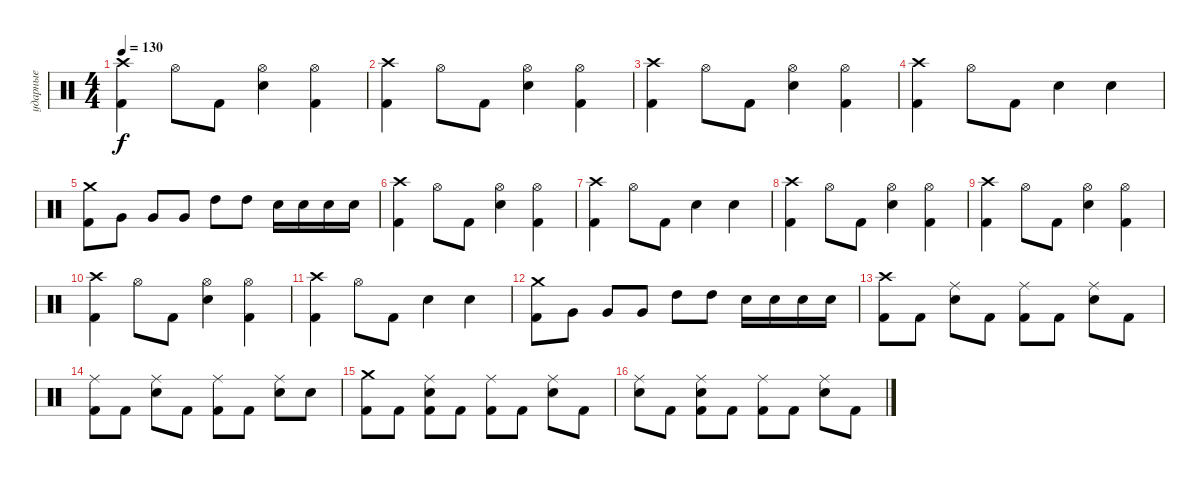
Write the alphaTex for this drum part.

\track ("ударные" "ударные") {instrument percussion}
\staff {score}
\articulation defaults
\ts (4 4)
\tempo 130
\clef neutral
\ks c
("Crash high (hit)" "Kick (hit) 2").4{dy f} "Hi-Hat (open)".8 "Kick (hit) 2".8 ("Hi-Hat (open)" "Electric Snare (hit)").4 ("Kick (hit) 2" "Hi-Hat (open)").4 |
("Crash high (hit)" "Kick (hit) 2").4 "Hi-Hat (open)".8 "Kick (hit) 2".8 ("Hi-Hat (open)" "Electric Snare (hit)").4 ("Kick (hit) 2" "Hi-Hat (open)").4 |
("Crash high (hit)" "Kick (hit) 2").4 "Hi-Hat (open)".8 "Kick (hit) 2".8 ("Hi-Hat (open)" "Electric Snare (hit)").4 ("Kick (hit) 2" "Hi-Hat (open)").4 |
("Crash high (hit)" "Kick (hit) 2").4 "Hi-Hat (open)".8 "Kick (hit) 2".8 "Electric Snare (hit)".4 "Electric Snare (hit)".4 |
("Crash medium (hit)" "Kick (hit) 2").8 "Very Low Tom (hit)".8 "Very Low Tom (hit)".8 "Very Low Tom (hit)".8 "High Tom (hit)".8 "High Tom (hit)".8 "Electric Snare (hit)".16 "Electric Snare (hit)".16 "Electric Snare (hit)".16 "Electric Snare (hit)".16 |
("Crash high (hit)" "Kick (hit) 2").4 "Hi-Hat (open)".8 "Kick (hit) 2".8 ("Hi-Hat (open)" "Electric Snare (hit)").4 ("Kick (hit) 2" "Hi-Hat (open)").4 |
("Crash high (hit)" "Kick (hit) 2").4 "Hi-Hat (open)".8 "Kick (hit) 2".8 "Electric Snare (hit)".4 "Electric Snare (hit)".4 |
("Crash high (hit)" "Kick (hit) 2").4 "Hi-Hat (open)".8 "Kick (hit) 2".8 ("Hi-Hat (open)" "Electric Snare (hit)").4 ("Kick (hit) 2" "Hi-Hat (open)").4 |
("Crash high (hit)" "Kick (hit) 2").4 "Hi-Hat (open)".8 "Kick (hit) 2".8 ("Hi-Hat (open)" "Electric Snare (hit)").4 ("Kick (hit) 2" "Hi-Hat (open)").4 |
("Crash high (hit)" "Kick (hit) 2").4 "Hi-Hat (open)".8 "Kick (hit) 2".8 ("Hi-Hat (open)" "Electric Snare (hit)").4 ("Kick (hit) 2" "Hi-Hat (open)").4 |
("Crash high (hit)" "Kick (hit) 2").4 "Hi-Hat (open)".8 "Kick (hit) 2".8 "Electric Snare (hit)".4 "Electric Snare (hit)".4 |
("Crash medium (hit)" "Kick (hit) 2").8 "Very Low Tom (hit)".8 "Very Low Tom (hit)".8 "Very Low Tom (hit)".8 "High Tom (hit)".8 "High Tom (hit)".8 "Electric Snare (hit)".16 "Electric Snare (hit)".16 "Electric Snare (hit)".16 "Electric Snare (hit)".16 |
("Crash high (hit)" "Kick (hit) 2").8 "Kick (hit) 2".8 ("Ride (middle)" "Electric Snare (hit)").8 "Kick (hit) 2".8 ("Ride (middle)" "Kick (hit) 2").8 "Kick (hit) 2".8 ("Ride (middle)" "Electric Snare (hit)").8 "Kick (hit) 2".8 |
("Kick (hit) 2" "Ride (middle)").8 "Kick (hit) 2".8 ("Ride (middle)" "Electric Snare (hit)").8 "Kick (hit) 2".8 ("Kick (hit) 2" "Ride (middle)").8 "Kick (hit) 2".8 ("Electric Snare (hit)" "Ride (middle)").8 "Electric Snare (hit)".8 |
("Crash medium (hit)" "Kick (hit) 2").8 "Kick (hit) 2".8 ("Ride (middle)" "Kick (hit) 2" "Electric Snare (hit)").8 "Kick (hit) 2".8 ("Kick (hit) 2" "Ride (middle)").8 "Kick (hit) 2".8 ("Ride (middle)" "Electric Snare (hit)").8 "Kick (hit) 2".8 |
("Ride (middle)" "Electric Snare (hit)").8 "Kick (hit) 2".8 ("Ride (middle)" "Electric Snare (hit)" "Kick (hit) 2").8 "Kick (hit) 2".8 ("Ride (middle)" "Kick (hit) 2").8 "Kick (hit) 2".8 ("Ride (middle)" "Electric Snare (hit)").8 "Kick (hit) 2".8
